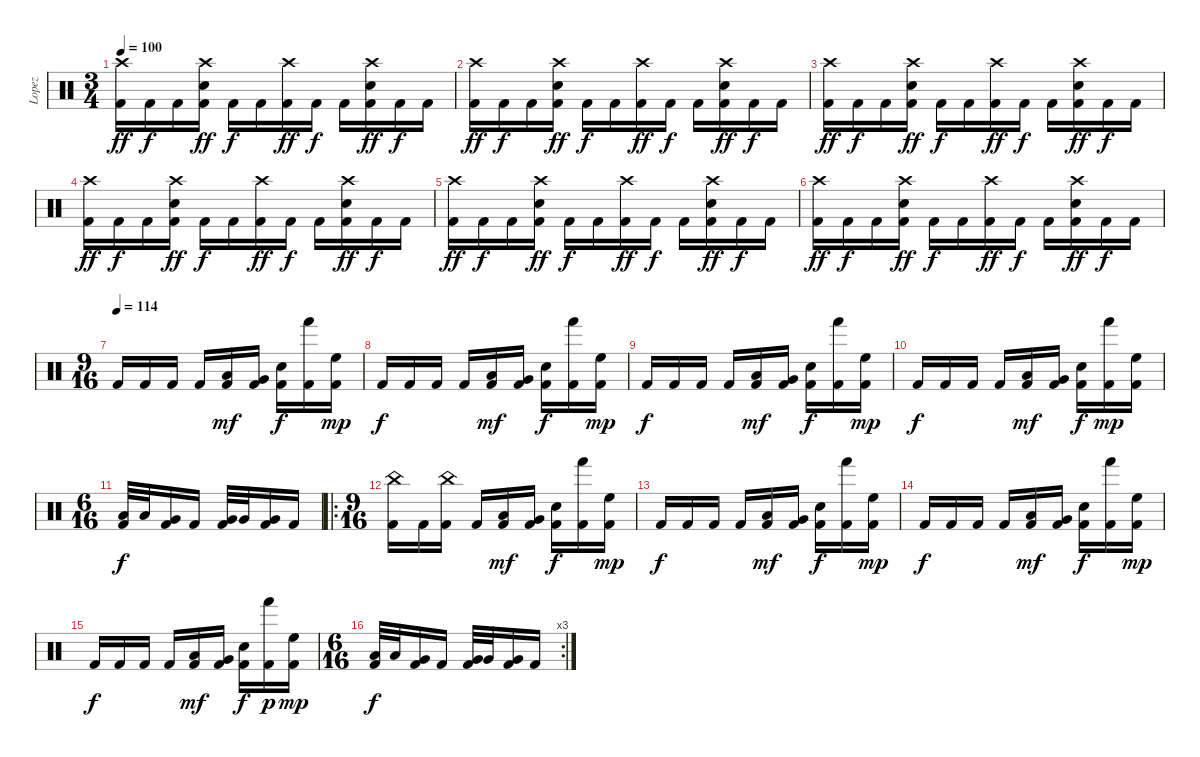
\track ("Lopez" "Lopez") {instrument percussion}
\staff {score}
\articulation defaults
\ts (3 4)
\tempo 100
\clef neutral
\ks c
("Crash high (hit)" "Kick (hit) 2").16{dy ff} "Kick (hit) 2".16{dy f} "Kick (hit) 2".16 ("Crash high (hit)" "Snare (hit) 2" "Kick (hit) 2").16{dy ff} "Kick (hit) 2".16{dy f} "Kick (hit) 2".16 ("Crash high (hit)" "Kick (hit) 2").16{dy ff} "Kick (hit) 2".16{dy f} "Kick (hit) 2".16 ("Crash high (hit)" "Snare (hit) 2" "Kick (hit) 2").16{dy ff} "Kick (hit) 2".16{dy f} "Kick (hit) 2".16 |
("Crash high (hit)" "Kick (hit) 2").16{dy ff} "Kick (hit) 2".16{dy f} "Kick (hit) 2".16 ("Crash high (hit)" "Snare (hit) 2" "Kick (hit) 2").16{dy ff} "Kick (hit) 2".16{dy f} "Kick (hit) 2".16 ("Crash high (hit)" "Kick (hit) 2").16{dy ff} "Kick (hit) 2".16{dy f} "Kick (hit) 2".16 ("Crash high (hit)" "Snare (hit) 2" "Kick (hit) 2").16{dy ff} "Kick (hit) 2".16{dy f} "Kick (hit) 2".16 |
("Crash high (hit)" "Kick (hit) 2").16{dy ff} "Kick (hit) 2".16{dy f} "Kick (hit) 2".16 ("Crash high (hit)" "Snare (hit) 2" "Kick (hit) 2").16{dy ff} "Kick (hit) 2".16{dy f} "Kick (hit) 2".16 ("Crash high (hit)" "Kick (hit) 2").16{dy ff} "Kick (hit) 2".16{dy f} "Kick (hit) 2".16 ("Crash high (hit)" "Snare (hit) 2" "Kick (hit) 2").16{dy ff} "Kick (hit) 2".16{dy f} "Kick (hit) 2".16 |
("Crash high (hit)" "Kick (hit) 2").16{dy ff} "Kick (hit) 2".16{dy f} "Kick (hit) 2".16 ("Crash high (hit)" "Snare (hit) 2" "Kick (hit) 2").16{dy ff} "Kick (hit) 2".16{dy f} "Kick (hit) 2".16 ("Crash high (hit)" "Kick (hit) 2").16{dy ff} "Kick (hit) 2".16{dy f} "Kick (hit) 2".16 ("Crash high (hit)" "Snare (hit) 2" "Kick (hit) 2").16{dy ff} "Kick (hit) 2".16{dy f} "Kick (hit) 2".16 |
("Crash high (hit)" "Kick (hit) 2").16{dy ff} "Kick (hit) 2".16{dy f} "Kick (hit) 2".16 ("Crash high (hit)" "Snare (hit) 2" "Kick (hit) 2").16{dy ff} "Kick (hit) 2".16{dy f} "Kick (hit) 2".16 ("Crash high (hit)" "Kick (hit) 2").16{dy ff} "Kick (hit) 2".16{dy f} "Kick (hit) 2".16 ("Crash high (hit)" "Snare (hit) 2" "Kick (hit) 2").16{dy ff} "Kick (hit) 2".16{dy f} "Kick (hit) 2".16 |
("Crash high (hit)" "Kick (hit) 2").16{dy ff} "Kick (hit) 2".16{dy f} "Kick (hit) 2".16 ("Crash high (hit)" "Snare (hit) 2" "Kick (hit) 2").16{dy ff} "Kick (hit) 2".16{dy f} "Kick (hit) 2".16 ("Crash high (hit)" "Kick (hit) 2").16{dy ff} "Kick (hit) 2".16{dy f} "Kick (hit) 2".16 ("Crash high (hit)" "Snare (hit) 2" "Kick (hit) 2").16{dy ff} "Kick (hit) 2".16{dy f} "Kick (hit) 2".16 |
\ts (9 16)
\tempo (114)
"Kick (hit) 2".16 "Kick (hit) 2".16 "Kick (hit) 2".16 "Kick (hit) 2".16 ("Low Tom (hit)" "Kick (hit) 2").16{dy mf} ("Very Low Tom (hit)" "Kick (hit) 2").16 ("Snare (hit) 2" "Kick (hit) 2").16{dy f} ("Hand (hit)" "Kick (hit) 2").16 ("High Floor Tom (hit)" "Kick (hit) 2").16{dy mp} |
"Kick (hit) 2".16{dy f} "Kick (hit) 2".16 "Kick (hit) 2".16 "Kick (hit) 2".16 ("Low Tom (hit)" "Kick (hit) 2").16{dy mf} ("Very Low Tom (hit)" "Kick (hit) 2").16 ("Snare (hit) 2" "Kick (hit) 2").16{dy f} ("Hand (hit)" "Kick (hit) 2").16 ("High Floor Tom (hit)" "Kick (hit) 2").16{dy mp} |
"Kick (hit) 2".16{dy f} "Kick (hit) 2".16 "Kick (hit) 2".16 "Kick (hit) 2".16 ("Low Tom (hit)" "Kick (hit) 2").16{dy mf} ("Very Low Tom (hit)" "Kick (hit) 2").16 ("Snare (hit) 2" "Kick (hit) 2").16{dy f} ("Hand (hit)" "Kick (hit) 2").16 ("High Floor Tom (hit)" "Kick (hit) 2").16{dy mp} |
"Kick (hit) 2".16{dy f} "Kick (hit) 2".16 "Kick (hit) 2".16 "Kick (hit) 2".16 ("Low Tom (hit)" "Kick (hit) 2").16{dy mf} ("Very Low Tom (hit)" "Kick (hit) 2").16 ("Snare (hit) 2" "Kick (hit) 2").16{dy f} ("Hand (hit)" "Kick (hit) 2").16{dy mp} ("High Floor Tom (hit)" "Kick (hit) 2").16 |
\ts (6 16)
("Low Tom (hit)" "Kick (hit) 2").32{dy f} "Low Tom (hit)".32 ("Very Low Tom (hit)" "Kick (hit) 2").16 "Kick (hit) 2".16 ("Very Low Tom (hit)" "Kick (hit) 2").32 "Very Low Tom (hit)".32 ("Very Low Tom (hit)" "Kick (hit) 2").16 "Kick (hit) 2".16 |
\ro
\ts (9 16)
("China (hit)" "Kick (hit) 2").16 "Kick (hit) 2".16 ("China (hit)" "Kick (hit) 2").16 "Kick (hit) 2".16 ("Low Tom (hit)" "Kick (hit) 2").16{dy mf} ("Very Low Tom (hit)" "Kick (hit) 2").16 ("Snare (hit) 2" "Kick (hit) 2").16{dy f} ("Hand (hit)" "Kick (hit) 2").16 ("High Floor Tom (hit)" "Kick (hit) 2").16{dy mp} |
"Kick (hit) 2".16{dy f} "Kick (hit) 2".16 "Kick (hit) 2".16 "Kick (hit) 2".16 ("Low Tom (hit)" "Kick (hit) 2").16{dy mf} ("Very Low Tom (hit)" "Kick (hit) 2").16 ("Snare (hit) 2" "Kick (hit) 2").16{dy f} ("Hand (hit)" "Kick (hit) 2").16 ("High Floor Tom (hit)" "Kick (hit) 2").16{dy mp} |
"Kick (hit) 2".16{dy f} "Kick (hit) 2".16 "Kick (hit) 2".16 "Kick (hit) 2".16 ("Low Tom (hit)" "Kick (hit) 2").16{dy mf} ("Very Low Tom (hit)" "Kick (hit) 2").16 ("Snare (hit) 2" "Kick (hit) 2").16{dy f} ("Hand (hit)" "Kick (hit) 2").16 ("High Floor Tom (hit)" "Kick (hit) 2").16{dy mp} |
"Kick (hit) 2".16{dy f} "Kick (hit) 2".16 "Kick (hit) 2".16 "Kick (hit) 2".16 ("Low Tom (hit)" "Kick (hit) 2").16{dy mf} ("Very Low Tom (hit)" "Kick (hit) 2").16 ("Snare (hit) 2" "Kick (hit) 2").16{dy f} ("Hand (hit)" "Kick (hit) 2").16{dy p} ("High Floor Tom (hit)" "Kick (hit) 2").16{dy mp} |
\rc 3
\ts (6 16)
("Low Tom (hit)" "Kick (hit) 2").32{dy f} "Low Tom (hit)".32 ("Very Low Tom (hit)" "Kick (hit) 2").16 "Kick (hit) 2".16 ("Very Low Tom (hit)" "Kick (hit) 2").32 "Very Low Tom (hit)".32 ("Very Low Tom (hit)" "Kick (hit) 2").16 "Kick (hit) 2".16
